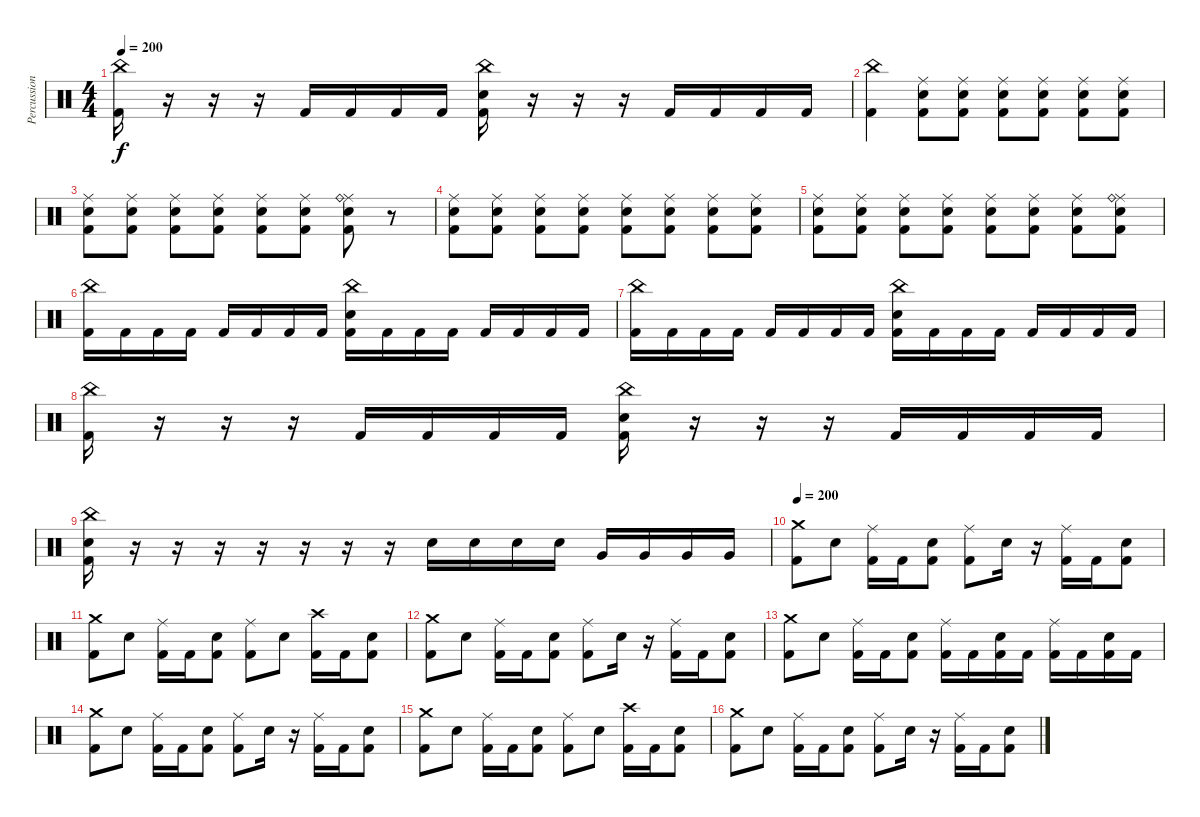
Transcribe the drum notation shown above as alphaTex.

\track ("Percussions" "Percussion") {instrument percussion}
\staff {score}
\articulation defaults
\ts (4 4)
\tempo 200
\clef neutral
\ks c
("China (hit)" "Kick (hit) 2").16{dy f} r.16 r.16 r.16 "Kick (hit) 2".16 "Kick (hit) 2".16 "Kick (hit) 2".16 "Kick (hit) 2".16 ("China (hit)" "Electric Snare (hit)" "Kick (hit) 2").16 r.16 r.16 r.16 "Kick (hit) 2".16 "Kick (hit) 2".16 "Kick (hit) 2".16 "Kick (hit) 2".16 |
("China (hit)" "Kick (hit) 2").4 ("Ride (middle)" "Electric Snare (hit)" "Kick (hit) 2").8 ("Ride (middle)" "Electric Snare (hit)" "Kick (hit) 2").8 ("Ride (middle)" "Electric Snare (hit)" "Kick (hit) 2").8 ("Ride (middle)" "Electric Snare (hit)" "Kick (hit) 2").8 ("Ride (middle)" "Electric Snare (hit)" "Kick (hit) 2").8 ("Ride (middle)" "Electric Snare (hit)" "Kick (hit) 2").8 |
("Ride (middle)" "Electric Snare (hit)" "Kick (hit) 2").8 ("Ride (middle)" "Electric Snare (hit)" "Kick (hit) 2").8 ("Ride (middle)" "Electric Snare (hit)" "Kick (hit) 2").8 ("Ride (middle)" "Electric Snare (hit)" "Kick (hit) 2").8 ("Ride (middle)" "Electric Snare (hit)" "Kick (hit) 2").8 ("Ride (middle)" "Electric Snare (hit)" "Kick (hit) 2").8 ("Ride (middle)" "Ride (bell)" "Electric Snare (hit)" "Kick (hit) 2").8 r.8 |
("Ride (middle)" "Electric Snare (hit)" "Kick (hit) 2").8 ("Ride (middle)" "Electric Snare (hit)" "Kick (hit) 2").8 ("Ride (middle)" "Electric Snare (hit)" "Kick (hit) 2").8 ("Ride (middle)" "Electric Snare (hit)" "Kick (hit) 2").8 ("Ride (middle)" "Electric Snare (hit)" "Kick (hit) 2").8 ("Ride (middle)" "Electric Snare (hit)" "Kick (hit) 2").8 ("Ride (middle)" "Electric Snare (hit)" "Kick (hit) 2").8 ("Ride (middle)" "Electric Snare (hit)" "Kick (hit) 2").8 |
("Ride (middle)" "Electric Snare (hit)" "Kick (hit) 2").8 ("Ride (middle)" "Electric Snare (hit)" "Kick (hit) 2").8 ("Ride (middle)" "Electric Snare (hit)" "Kick (hit) 2").8 ("Ride (middle)" "Electric Snare (hit)" "Kick (hit) 2").8 ("Ride (middle)" "Electric Snare (hit)" "Kick (hit) 2").8 ("Ride (middle)" "Electric Snare (hit)" "Kick (hit) 2").8 ("Ride (middle)" "Electric Snare (hit)" "Kick (hit) 2").8 ("Ride (middle)" "Ride (bell)" "Electric Snare (hit)" "Kick (hit) 2").8 |
("China (hit)" "Kick (hit) 2").16 "Kick (hit) 2".16 "Kick (hit) 2".16 "Kick (hit) 2".16 "Kick (hit) 2".16 "Kick (hit) 2".16 "Kick (hit) 2".16 "Kick (hit) 2".16 ("China (hit)" "Electric Snare (hit)" "Kick (hit) 2").16 "Kick (hit) 2".16 "Kick (hit) 2".16 "Kick (hit) 2".16 "Kick (hit) 2".16 "Kick (hit) 2".16 "Kick (hit) 2".16 "Kick (hit) 2".16 |
("China (hit)" "Kick (hit) 2").16 "Kick (hit) 2".16 "Kick (hit) 2".16 "Kick (hit) 2".16 "Kick (hit) 2".16 "Kick (hit) 2".16 "Kick (hit) 2".16 "Kick (hit) 2".16 ("China (hit)" "Electric Snare (hit)" "Kick (hit) 2").16 "Kick (hit) 2".16 "Kick (hit) 2".16 "Kick (hit) 2".16 "Kick (hit) 2".16 "Kick (hit) 2".16 "Kick (hit) 2".16 "Kick (hit) 2".16 |
("China (hit)" "Kick (hit) 2").16 r.16 r.16 r.16 "Kick (hit) 2".16 "Kick (hit) 2".16 "Kick (hit) 2".16 "Kick (hit) 2".16 ("China (hit)" "Electric Snare (hit)" "Kick (hit) 2").16 r.16 r.16 r.16 "Kick (hit) 2".16 "Kick (hit) 2".16 "Kick (hit) 2".16 "Kick (hit) 2".16 |
("China (hit)" "Electric Snare (hit)" "Kick (hit) 2").16 r.16 r.16 r.16 r.16 r.16 r.16 r.16 "Electric Snare (hit)".16 "Electric Snare (hit)".16 "Electric Snare (hit)".16 "Electric Snare (hit)".16 "Very Low Tom (hit)".16 "Very Low Tom (hit)".16 "Very Low Tom (hit)".16 "Very Low Tom (hit)".16 |
\tempo 200
("Crash medium (hit)" "Kick (hit) 2").8 "Electric Snare (hit)".8 ("Ride (middle)" "Kick (hit) 2").16 "Kick (hit) 2".16 ("Electric Snare (hit)" "Kick (hit) 2").8 ("Ride (middle)" "Kick (hit) 2").8 "Electric Snare (hit)".16 r.16 ("Ride (middle)" "Kick (hit) 2").16 "Kick (hit) 2".16 ("Electric Snare (hit)" "Kick (hit) 2").8 |
("Crash medium (hit)" "Kick (hit) 2").8 "Electric Snare (hit)".8 ("Ride (middle)" "Kick (hit) 2").16 "Kick (hit) 2".16 ("Electric Snare (hit)" "Kick (hit) 2").8 ("Ride (middle)" "Kick (hit) 2").8 "Electric Snare (hit)".8 ("Crash high (hit)" "Kick (hit) 2").16 "Kick (hit) 2".16 ("Electric Snare (hit)" "Kick (hit) 2").8 |
("Crash medium (hit)" "Kick (hit) 2").8 "Electric Snare (hit)".8 ("Ride (middle)" "Kick (hit) 2").16 "Kick (hit) 2".16 ("Electric Snare (hit)" "Kick (hit) 2").8 ("Ride (middle)" "Kick (hit) 2").8 "Electric Snare (hit)".16 r.16 ("Ride (middle)" "Kick (hit) 2").16 "Kick (hit) 2".16 ("Electric Snare (hit)" "Kick (hit) 2").8 |
("Crash medium (hit)" "Kick (hit) 2").8 "Electric Snare (hit)".8 ("Ride (middle)" "Kick (hit) 2").16 "Kick (hit) 2".16 ("Electric Snare (hit)" "Kick (hit) 2").8 ("Ride (middle)" "Kick (hit) 2").16 "Kick (hit) 2".16 ("Electric Snare (hit)" "Kick (hit) 2").16 "Kick (hit) 2".16 ("Ride (middle)" "Kick (hit) 2").16 "Kick (hit) 2".16 ("Electric Snare (hit)" "Kick (hit) 2").16 "Kick (hit) 2".16 |
("Crash medium (hit)" "Kick (hit) 2").8 "Electric Snare (hit)".8 ("Ride (middle)" "Kick (hit) 2").16 "Kick (hit) 2".16 ("Electric Snare (hit)" "Kick (hit) 2").8 ("Ride (middle)" "Kick (hit) 2").8 "Electric Snare (hit)".16 r.16 ("Ride (middle)" "Kick (hit) 2").16 "Kick (hit) 2".16 ("Electric Snare (hit)" "Kick (hit) 2").8 |
("Crash medium (hit)" "Kick (hit) 2").8 "Electric Snare (hit)".8 ("Ride (middle)" "Kick (hit) 2").16 "Kick (hit) 2".16 ("Electric Snare (hit)" "Kick (hit) 2").8 ("Ride (middle)" "Kick (hit) 2").8 "Electric Snare (hit)".8 ("Crash high (hit)" "Kick (hit) 2").16 "Kick (hit) 2".16 ("Electric Snare (hit)" "Kick (hit) 2").8 |
("Crash medium (hit)" "Kick (hit) 2").8 "Electric Snare (hit)".8 ("Ride (middle)" "Kick (hit) 2").16 "Kick (hit) 2".16 ("Electric Snare (hit)" "Kick (hit) 2").8 ("Ride (middle)" "Kick (hit) 2").8 "Electric Snare (hit)".16 r.16 ("Ride (middle)" "Kick (hit) 2").16 "Kick (hit) 2".16 ("Electric Snare (hit)" "Kick (hit) 2").8
